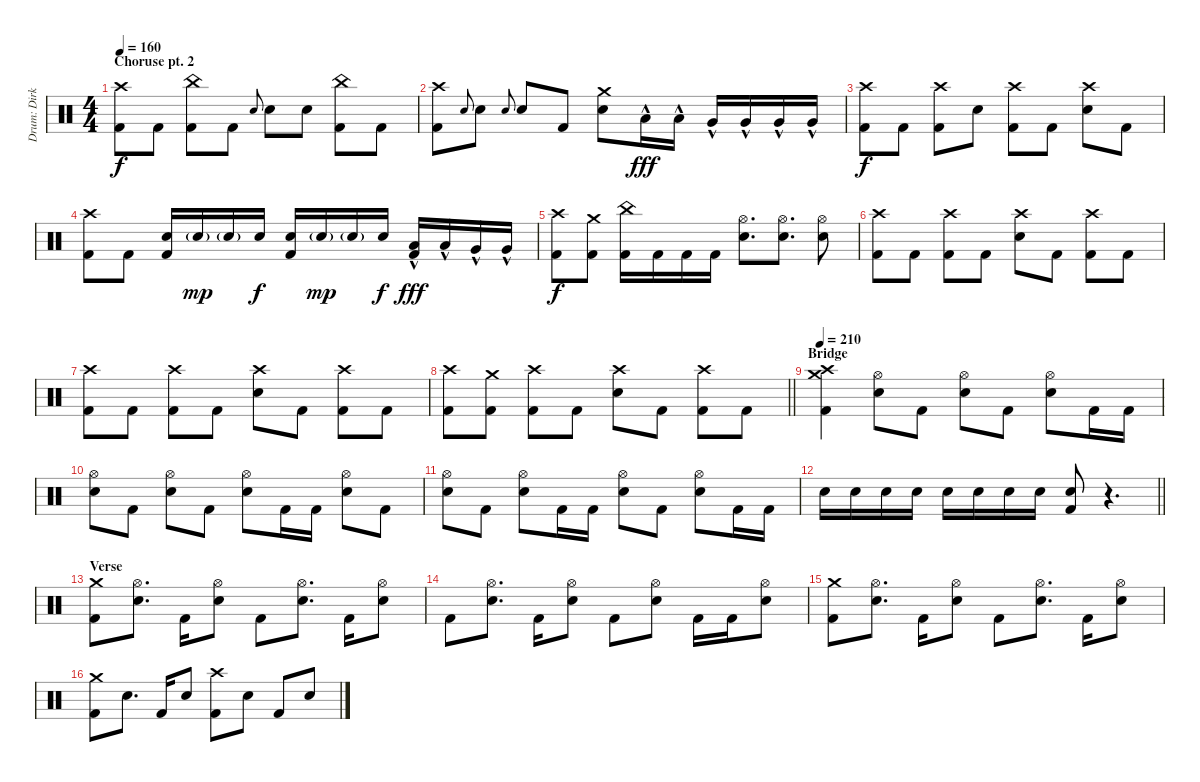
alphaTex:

\track ("Drum: Dirk" "Drum: Dirk") {instrument percussion}
\staff {score}
\articulation defaults
\ts (4 4)
\section ("" "Choruse pt. 2")
\tempo 160
\clef neutral
\ks c
("Crash high (hit)" "Kick (hit) 2").8{dy f} "Kick (hit) 2".8 ("China (hit)" "Kick (hit) 2").8 "Kick (hit) 2".8 "Electric Snare (hit)".8{gr onbeat} "Electric Snare (hit)".8 "Electric Snare (hit)".8 ("China (hit)" "Kick (hit) 2").8 "Kick (hit) 2".8 |
("Crash high (hit)" "Kick (hit) 2").8 "Electric Snare (hit)".8{gr onbeat} "Electric Snare (hit)".8 "Electric Snare (hit)".8{gr onbeat} "Electric Snare (hit)".8 "Kick (hit) 2".8 ("Crash medium (hit)" "Electric Snare (hit)").8 "Low Tom (hit)"{hac}.16{dy fff} "Low Tom (hit)"{hac}.16 "Very Low Tom (hit)"{hac}.16 "Very Low Tom (hit)"{hac}.16 "Very Low Tom (hit)"{hac}.16 "Very Low Tom (hit)"{hac}.16 |
("Crash high (hit)" "Kick (hit) 2").8{dy f} "Kick (hit) 2".8 ("Crash high (hit)" "Kick (hit) 2").8 "Electric Snare (hit)".8 ("Crash high (hit)" "Kick (hit) 2").8 "Kick (hit) 2".8 ("Crash high (hit)" "Electric Snare (hit)").8 "Kick (hit) 2".8 |
("Crash high (hit)" "Kick (hit) 2").8 "Kick (hit) 2".8 ("Electric Snare (hit)" "Kick (hit) 2").16 "Electric Snare (hit)"{g}.16{dy mp} "Electric Snare (hit)"{g}.16 "Electric Snare (hit)".16{dy f} ("Electric Snare (hit)" "Kick (hit) 2").16 "Electric Snare (hit)"{g}.16{dy mp} "Electric Snare (hit)"{g}.16 "Electric Snare (hit)".16{dy f} ("Low Tom (hit)"{hac} "Kick (hit) 2").16{dy fff} "Low Tom (hit)"{hac}.16 "Very Low Tom (hit)"{hac}.16 "Very Low Tom (hit)"{hac}.16 |
("Crash high (hit)" "Kick (hit) 2").8{dy f} ("Crash medium (hit)" "Kick (hit) 2").8 ("China (hit)" "Kick (hit) 2").16 "Kick (hit) 2".16 "Kick (hit) 2".16 "Kick (hit) 2".16 ("Hi-Hat (open)" "Electric Snare (hit)").8{d} ("Hi-Hat (open)" "Electric Snare (hit)").8{d} ("Hi-Hat (open)" "Electric Snare (hit)").8 |
("Crash high (hit)" "Kick (hit) 2").8 "Kick (hit) 2".8 ("Crash high (hit)" "Kick (hit) 2").8 "Kick (hit) 2".8 ("Crash high (hit)" "Electric Snare (hit)").8 "Kick (hit) 2".8 ("Crash high (hit)" "Kick (hit) 2").8 "Kick (hit) 2".8 |
("Crash high (hit)" "Kick (hit) 2").8 "Kick (hit) 2".8 ("Crash high (hit)" "Kick (hit) 2").8 "Kick (hit) 2".8 ("Crash high (hit)" "Electric Snare (hit)").8 "Kick (hit) 2".8 ("Crash high (hit)" "Kick (hit) 2").8 "Kick (hit) 2".8 |
\barLineRight lightlight
("Crash high (hit)" "Kick (hit) 2").8 ("Crash medium (hit)" "Kick (hit) 2").8 ("Crash high (hit)" "Kick (hit) 2").8 "Kick (hit) 2".8 ("Crash high (hit)" "Electric Snare (hit)").8 "Kick (hit) 2".8 ("Crash high (hit)" "Kick (hit) 2").8 "Kick (hit) 2".8 |
\section ("" "Bridge")
\tempo 210
("Crash high (hit)" "Crash medium (hit)" "Kick (hit) 2").4 ("Hi-Hat (open)" "Electric Snare (hit)").8 "Kick (hit) 2".8 ("Hi-Hat (open)" "Electric Snare (hit)").8 "Kick (hit) 2".8 ("Hi-Hat (open)" "Electric Snare (hit)").8 "Kick (hit) 2".16 "Kick (hit) 2".16 |
("Hi-Hat (open)" "Electric Snare (hit)").8 "Kick (hit) 2".8 ("Hi-Hat (open)" "Electric Snare (hit)").8 "Kick (hit) 2".8 ("Hi-Hat (open)" "Electric Snare (hit)").8 "Kick (hit) 2".16 "Kick (hit) 2".16 ("Hi-Hat (open)" "Electric Snare (hit)").8 "Kick (hit) 2".8 |
("Hi-Hat (open)" "Electric Snare (hit)").8 "Kick (hit) 2".8 ("Hi-Hat (open)" "Electric Snare (hit)").8 "Kick (hit) 2".16 "Kick (hit) 2".16 ("Hi-Hat (open)" "Electric Snare (hit)").8 "Kick (hit) 2".8 ("Hi-Hat (open)" "Electric Snare (hit)").8 "Kick (hit) 2".16 "Kick (hit) 2".16 |
\barLineRight lightlight "Electric Snare (hit)".16{volume 7} "Electric Snare (hit)".16{volume 14} "Electric Snare (hit)".16 "Electric Snare (hit)".16 "Electric Snare (hit)".16 "Electric Snare (hit)".16 "Electric Snare (hit)".16 "Electric Snare (hit)".16
("Electric Snare (hit)" "Kick (hit) 2").8 r.4{d} |
\section ("" "Verse")
("Crash medium (hit)" "Kick (hit) 2").8{volume 13} ("Hi-Hat (open)" "Electric Snare (hit)").8{d} "Kick (hit) 2".16 ("Hi-Hat (open)" "Electric Snare (hit)").8 "Kick (hit) 2".8 ("Hi-Hat (open)" "Electric Snare (hit)").8{d} "Kick (hit) 2".16 ("Hi-Hat (open)" "Electric Snare (hit)").8 |
"Kick (hit) 2".8 ("Hi-Hat (open)" "Electric Snare (hit)").8{d} "Kick (hit) 2".16 ("Hi-Hat (open)" "Electric Snare (hit)").8 "Kick (hit) 2".8 ("Hi-Hat (open)" "Electric Snare (hit)").8 "Kick (hit) 2".16 "Kick (hit) 2".16 ("Hi-Hat (open)" "Electric Snare (hit)").8 |
("Crash medium (hit)" "Kick (hit) 2").8 ("Hi-Hat (open)" "Electric Snare (hit)").8{d} "Kick (hit) 2".16 ("Hi-Hat (open)" "Electric Snare (hit)").8 "Kick (hit) 2".8 ("Hi-Hat (open)" "Electric Snare (hit)").8{d} "Kick (hit) 2".16 ("Hi-Hat (open)" "Electric Snare (hit)").8 |
("Crash medium (hit)" "Kick (hit) 2").8 "Electric Snare (hit)".8{d} "Kick (hit) 2".16 "Electric Snare (hit)".8 ("Crash high (hit)" "Kick (hit) 2").8 "Electric Snare (hit)".8 "Kick (hit) 2".8 "Electric Snare (hit)".8
